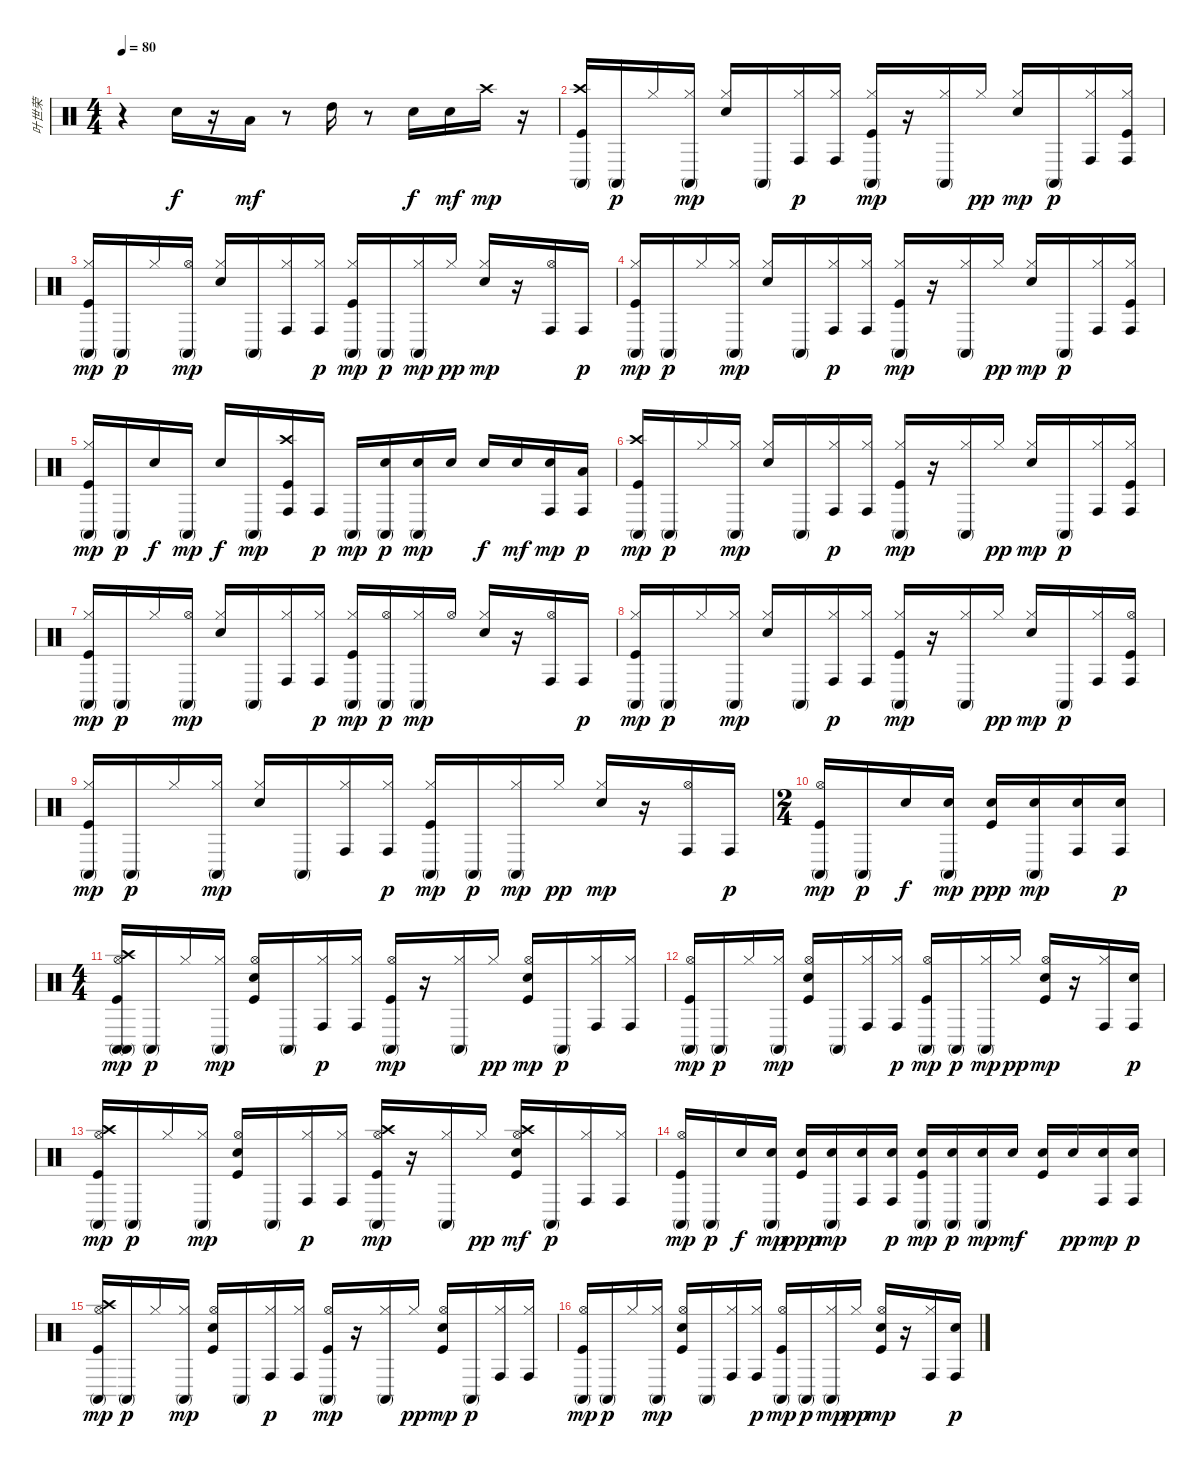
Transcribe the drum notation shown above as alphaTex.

\track ("叶世荣" "叶世荣") {instrument percussion}
\staff {score}
\articulation defaults
\ts (4 4)
\tempo 80
\clef neutral
\ks c
r.4{dy f} "Snare (hit) 2".16 r.16 "Low Tom (hit)".16{dy mf} r.8 "High Tom (hit)".16 r.8 "Snare (hit) 2".16{dy f} "Snare (hit) 2".16{dy mf} "Crash high (hit)".16{dy mp} r.16 |
("Kick (hit)" "Crash high (hit)" "Conga high (mute)").16 "Conga high (mute)".16{dy p} "Hi-Hat (closed)".16 ("Hi-Hat (closed)" "Conga high (mute)").16{dy mp} ("Snare (hit) 2" "Hi-Hat (closed)").16 "Conga high (mute)".16 ("Hi-Hat (closed)" "Conga high (hit)").16{dy p} ("Hi-Hat (closed)" "Conga high (hit)").16 ("Kick (hit)" "Hi-Hat (closed)" "Conga high (mute)").16{dy mp} r.16 ("Hi-Hat (closed)" "Conga high (mute)").16 "Hi-Hat (closed)".16{dy pp} ("Snare (hit) 2" "Hi-Hat (closed)").16{dy mp} "Conga high (mute)".16{dy p} ("Hi-Hat (closed)" "Conga high (hit)").16 ("Kick (hit)" "Hi-Hat (closed)" "Conga high (hit)").16 |
("Kick (hit)" "Hi-Hat (closed)" "Conga high (mute)").16{dy mp} "Conga high (mute)".16{dy p} "Hi-Hat (closed)".16 ("Hi-Hat (open)" "Conga high (mute)").16{dy mp} ("Snare (hit) 2" "Hi-Hat (closed)").16 "Conga high (mute)".16 ("Hi-Hat (closed)" "Conga high (hit)").16 ("Hi-Hat (closed)" "Conga high (hit)").16{dy p} ("Kick (hit)" "Hi-Hat (closed)" "Conga high (mute)").16{dy mp} "Conga high (mute)".16{dy p} ("Hi-Hat (closed)" "Conga high (mute)").16{dy mp} "Hi-Hat (closed)".16{dy pp} ("Snare (hit) 2" "Hi-Hat (closed)").16{dy mp} r.16 ("Hi-Hat (open)" "Conga high (hit)").16 "Conga high (hit)".16{dy p} |
("Kick (hit)" "Hi-Hat (closed)" "Conga high (mute)").16{dy mp} "Conga high (mute)".16{dy p} "Hi-Hat (closed)".16 ("Hi-Hat (closed)" "Conga high (mute)").16{dy mp} ("Snare (hit) 2" "Hi-Hat (closed)").16 "Conga high (mute)".16 ("Hi-Hat (closed)" "Conga high (hit)").16{dy p} ("Hi-Hat (closed)" "Conga high (hit)").16 ("Kick (hit)" "Hi-Hat (closed)" "Conga high (mute)").16{dy mp} r.16 ("Hi-Hat (closed)" "Conga high (mute)").16 "Hi-Hat (closed)".16{dy pp} ("Snare (hit) 2" "Hi-Hat (closed)").16{dy mp} "Conga high (mute)".16{dy p} ("Hi-Hat (closed)" "Conga high (hit)").16 ("Kick (hit)" "Hi-Hat (closed)" "Conga high (hit)").16 |
("Kick (hit)" "Hi-Hat (closed)" "Conga high (mute)").16{dy mp} "Conga high (mute)".16{dy p} "Snare (hit) 2".16{dy f} "Conga high (mute)".16{dy mp} "Snare (hit) 2".16{dy f} "Conga high (mute)".16{dy mp} ("Kick (hit)" "Crash high (hit)" "Conga high (hit)").16 "Conga high (hit)".16{dy p} "Conga high (mute)".16{dy mp} ("Snare (hit) 2" "Conga high (mute)").16{dy p} ("Snare (hit) 2" "Conga high (mute)").16{dy mp} "Snare (hit) 2".16 "Snare (hit) 2".16{dy f} "Snare (hit) 2".16{dy mf} ("Snare (hit) 2" "Conga high (hit)").16{dy mp} ("Low Floor Tom (hit)" "Conga high (hit)").16{dy p} |
("Kick (hit)" "Crash high (hit)" "Conga high (mute)").16{dy mp} "Conga high (mute)".16{dy p} "Hi-Hat (closed)".16 ("Hi-Hat (closed)" "Conga high (mute)").16{dy mp} ("Snare (hit) 2" "Hi-Hat (closed)").16 "Conga high (mute)".16 ("Hi-Hat (closed)" "Conga high (hit)").16{dy p} ("Hi-Hat (closed)" "Conga high (hit)").16 ("Kick (hit)" "Hi-Hat (closed)" "Conga high (mute)").16{dy mp} r.16 ("Hi-Hat (closed)" "Conga high (mute)").16 "Hi-Hat (closed)".16{dy pp} ("Snare (hit) 2" "Hi-Hat (closed)").16{dy mp} "Conga high (mute)".16{dy p} ("Hi-Hat (closed)" "Conga high (hit)").16 ("Kick (hit)" "Hi-Hat (closed)" "Conga high (hit)").16 |
("Kick (hit)" "Hi-Hat (closed)" "Conga high (mute)").16{dy mp} "Conga high (mute)".16{dy p} "Hi-Hat (closed)".16 ("Hi-Hat (open)" "Conga high (mute)").16{dy mp} ("Snare (hit) 2" "Hi-Hat (closed)").16 "Conga high (mute)".16 ("Hi-Hat (closed)" "Conga high (hit)").16 ("Hi-Hat (closed)" "Conga high (hit)").16{dy p} ("Kick (hit)" "Hi-Hat (closed)" "Conga high (mute)").16{dy mp} ("Hi-Hat (open)" "Conga high (mute)").16{dy p} ("Hi-Hat (closed)" "Conga high (mute)").16{dy mp} "Hi-Hat (open)".16 ("Snare (hit) 2" "Hi-Hat (closed)").16 r.16 ("Hi-Hat (open)" "Conga high (hit)").16 "Conga high (hit)".16{dy p} |
("Kick (hit)" "Hi-Hat (closed)" "Conga high (mute)").16{dy mp} "Conga high (mute)".16{dy p} "Hi-Hat (closed)".16 ("Hi-Hat (closed)" "Conga high (mute)").16{dy mp} ("Snare (hit) 2" "Hi-Hat (closed)").16 "Conga high (mute)".16 ("Hi-Hat (closed)" "Conga high (hit)").16{dy p} ("Hi-Hat (closed)" "Conga high (hit)").16 ("Kick (hit)" "Hi-Hat (closed)" "Conga high (mute)").16{dy mp} r.16 ("Hi-Hat (closed)" "Conga high (mute)").16 "Hi-Hat (closed)".16{dy pp} ("Snare (hit) 2" "Hi-Hat (closed)").16{dy mp} "Conga high (mute)".16{dy p} ("Hi-Hat (closed)" "Conga high (hit)").16 ("Kick (hit)" "Hi-Hat (open)" "Conga high (hit)").16 |
("Kick (hit)" "Hi-Hat (closed)" "Conga high (mute)").16{dy mp} "Conga high (mute)".16{dy p} "Hi-Hat (closed)".16 ("Hi-Hat (closed)" "Conga high (mute)").16{dy mp} ("Snare (hit) 2" "Hi-Hat (closed)").16 "Conga high (mute)".16 ("Hi-Hat (closed)" "Conga high (hit)").16 ("Hi-Hat (closed)" "Conga high (hit)").16{dy p} ("Kick (hit)" "Hi-Hat (closed)" "Conga high (mute)").16{dy mp} "Conga high (mute)".16{dy p} ("Hi-Hat (closed)" "Conga high (mute)").16{dy mp} "Hi-Hat (closed)".16{dy pp} ("Snare (hit) 2" "Hi-Hat (closed)").16{dy mp} r.16 ("Hi-Hat (open)" "Conga high (hit)").16 "Conga high (hit)".16{dy p} |
\ts (2 4)
("Kick (hit)" "Hi-Hat (open)" "Conga high (mute)").16{dy mp} "Conga high (mute)".16{dy p} "Snare (hit) 2".16{dy f} ("Snare (hit) 2" "Conga high (mute)").16{dy mp} ("Kick (hit)" "Snare (hit) 2").16{dy ppp} ("Snare (hit) 2" "Conga high (mute)").16{dy mp} ("Snare (hit) 2" "Conga high (hit)").16 ("Snare (hit) 2" "Conga high (hit)").16{dy p} |
\ts (4 4)
("Kick (hit)" "Hi-Hat (open)" "Crash high (hit)" "Conga high (mute)" "Conga high (mute)").16{dy mp} "Conga high (mute)".16{dy p} "Hi-Hat (closed)".16 ("Hi-Hat (closed)" "Conga high (mute)").16{dy mp} ("Kick (hit)" "Snare (hit) 2" "Hi-Hat (open)").16 "Conga high (mute)".16 ("Hi-Hat (closed)" "Conga high (hit)").16{dy p} ("Hi-Hat (closed)" "Conga high (hit)").16 ("Kick (hit)" "Hi-Hat (open)" "Conga high (mute)").16{dy mp} r.16 ("Hi-Hat (closed)" "Conga high (mute)").16 "Hi-Hat (closed)".16{dy pp} ("Kick (hit)" "Snare (hit) 2" "Hi-Hat (open)").16{dy mp} "Conga high (mute)".16{dy p} ("Hi-Hat (closed)" "Conga high (hit)").16 ("Hi-Hat (closed)" "Conga high (hit)").16 |
("Kick (hit)" "Hi-Hat (open)" "Conga high (mute)").16{dy mp} "Conga high (mute)".16{dy p} "Hi-Hat (closed)".16 ("Hi-Hat (closed)" "Conga high (mute)").16{dy mp} ("Kick (hit)" "Snare (hit) 2" "Hi-Hat (open)").16 "Conga high (mute)".16 ("Hi-Hat (closed)" "Conga high (hit)").16 ("Hi-Hat (closed)" "Conga high (hit)").16{dy p} ("Kick (hit)" "Hi-Hat (open)" "Conga high (mute)").16{dy mp} "Conga high (mute)".16{dy p} ("Hi-Hat (closed)" "Conga high (mute)").16{dy mp} "Hi-Hat (closed)".16{dy pp} ("Kick (hit)" "Snare (hit) 2" "Hi-Hat (open)").16{dy mp} r.16 ("Hi-Hat (closed)" "Conga high (hit)").16 ("Snare (hit) 2" "Conga high (hit)").16{dy p} |
("Kick (hit)" "Hi-Hat (open)" "Crash high (hit)" "Conga high (mute)").16{dy mp} "Conga high (mute)".16{dy p} "Hi-Hat (closed)".16 ("Hi-Hat (closed)" "Conga high (mute)").16{dy mp} ("Kick (hit)" "Snare (hit) 2" "Hi-Hat (open)").16 "Conga high (mute)".16 ("Hi-Hat (closed)" "Conga high (hit)").16{dy p} ("Hi-Hat (closed)" "Conga high (hit)").16 ("Kick (hit)" "Hi-Hat (open)" "Crash high (hit)" "Conga high (mute)").16{dy mp} r.16 ("Hi-Hat (closed)" "Conga high (mute)").16 "Hi-Hat (closed)".16{dy pp} ("Kick (hit)" "Snare (hit) 2" "Hi-Hat (open)" "Crash high (hit)").16{dy mf} "Conga high (mute)".16{dy p} ("Hi-Hat (closed)" "Conga high (hit)").16 ("Hi-Hat (closed)" "Conga high (hit)").16 |
("Kick (hit)" "Hi-Hat (open)" "Conga high (mute)").16{dy mp} "Conga high (mute)".16{dy p} "Snare (hit) 2".16{dy f} ("Snare (hit) 2" "Conga high (mute)").16{dy mp} ("Kick (hit)" "Snare (hit) 2").16{dy ppp} ("Snare (hit) 2" "Conga high (mute)").16{dy mp} ("Snare (hit) 2" "Conga high (hit)").16 ("Snare (hit) 2" "Conga high (hit)").16{dy p} ("Kick (hit)" "Snare (hit) 2" "Conga high (mute)").16{dy mp} ("Snare (hit) 2" "Conga high (mute)").16{dy p} ("Snare (hit) 2" "Conga high (mute)").16{dy mp} "Snare (hit) 2".16{dy mf} ("Kick (hit)" "Snare (hit) 2").16 "Snare (hit) 2".16{dy pp} ("Snare (hit) 2" "Conga high (hit)").16{dy mp} ("Snare (hit) 2" "Conga high (hit)").16{dy p} |
("Kick (hit)" "Hi-Hat (open)" "Crash high (hit)" "Conga high (mute)").16{dy mp} "Conga high (mute)".16{dy p} "Hi-Hat (closed)".16 ("Hi-Hat (closed)" "Conga high (mute)").16{dy mp} ("Kick (hit)" "Snare (hit) 2" "Hi-Hat (open)").16 "Conga high (mute)".16 ("Hi-Hat (closed)" "Conga high (hit)").16{dy p} ("Hi-Hat (closed)" "Conga high (hit)").16 ("Kick (hit)" "Hi-Hat (open)" "Conga high (mute)").16{dy mp} r.16 ("Hi-Hat (closed)" "Conga high (mute)").16 "Hi-Hat (closed)".16{dy pp} ("Kick (hit)" "Snare (hit) 2" "Hi-Hat (open)").16{dy mp} "Conga high (mute)".16{dy p} ("Hi-Hat (closed)" "Conga high (hit)").16 ("Hi-Hat (closed)" "Conga high (hit)").16 |
("Kick (hit)" "Hi-Hat (open)" "Conga high (mute)").16{dy mp} "Conga high (mute)".16{dy p} "Hi-Hat (closed)".16 ("Hi-Hat (closed)" "Conga high (mute)").16{dy mp} ("Kick (hit)" "Snare (hit) 2" "Hi-Hat (open)").16 "Conga high (mute)".16 ("Hi-Hat (closed)" "Conga high (hit)").16 ("Hi-Hat (closed)" "Conga high (hit)").16{dy p} ("Kick (hit)" "Hi-Hat (open)" "Conga high (mute)").16{dy mp} "Conga high (mute)".16{dy p} ("Hi-Hat (closed)" "Conga high (mute)").16{dy mp} "Hi-Hat (closed)".16{dy pp} ("Kick (hit)" "Snare (hit) 2" "Hi-Hat (open)").16{dy mp} r.16 ("Hi-Hat (closed)" "Conga high (hit)").16 ("Snare (hit) 2" "Conga high (hit)").16{dy p}
